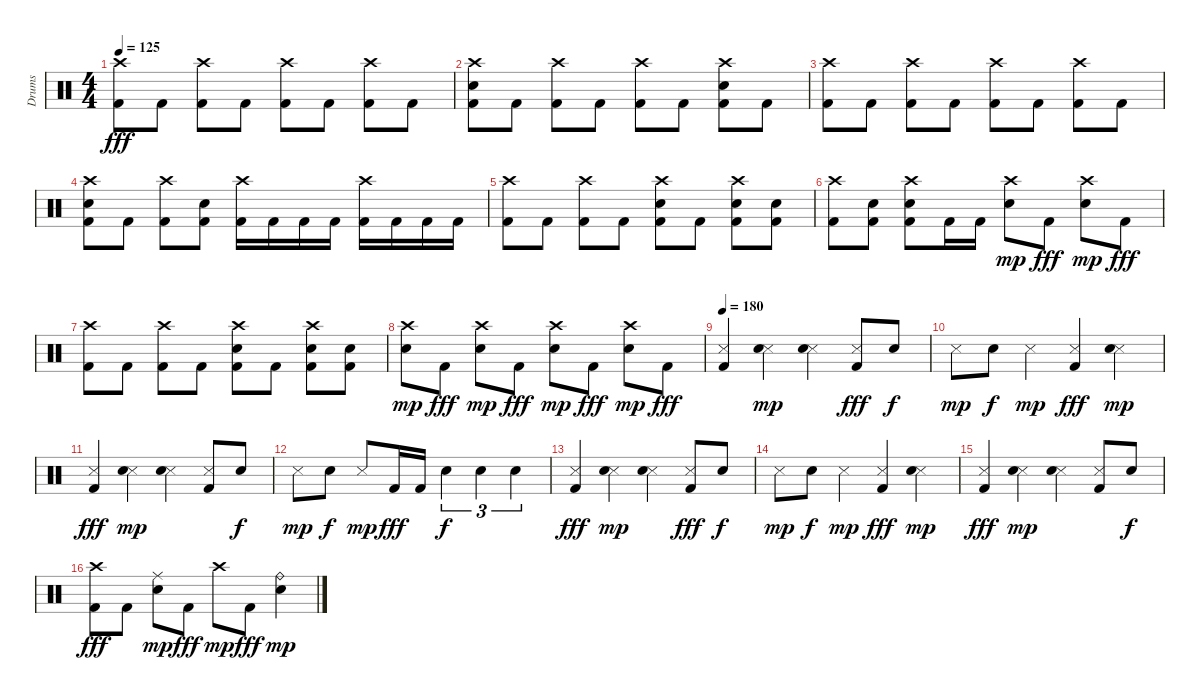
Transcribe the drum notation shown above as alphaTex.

\track ("Drums" "Drums") {instrument percussion}
\staff {score}
\articulation defaults
\ts (4 4)
\tempo 125
\clef neutral
\ks c
("Crash high (hit)" "Kick (hit) 2").8{dy fff} "Kick (hit) 2".8 ("Crash high (hit)" "Kick (hit) 2").8 "Kick (hit) 2".8 ("Crash high (hit)" "Kick (hit) 2").8 "Kick (hit) 2".8 ("Crash high (hit)" "Kick (hit) 2").8 "Kick (hit) 2".8 |
("Crash high (hit)" "Electric Snare (hit)" "Kick (hit) 2").8 "Kick (hit) 2".8 ("Crash high (hit)" "Kick (hit) 2").8 "Kick (hit) 2".8 ("Crash high (hit)" "Kick (hit) 2").8 "Kick (hit) 2".8 ("Crash high (hit)" "Electric Snare (hit)" "Kick (hit) 2").8 "Kick (hit) 2".8 |
("Crash high (hit)" "Kick (hit) 2").8 "Kick (hit) 2".8 ("Crash high (hit)" "Kick (hit) 2").8 "Kick (hit) 2".8 ("Crash high (hit)" "Kick (hit) 2").8 "Kick (hit) 2".8 ("Crash high (hit)" "Kick (hit) 2").8 "Kick (hit) 2".8 |
("Crash high (hit)" "Electric Snare (hit)" "Kick (hit) 2").8 "Kick (hit) 2".8 ("Crash high (hit)" "Kick (hit) 2").8 ("Electric Snare (hit)" "Kick (hit) 2").8 ("Crash high (hit)" "Kick (hit) 2").16 "Kick (hit) 2".16 "Kick (hit) 2".16 "Kick (hit) 2".16 ("Crash high (hit)" "Kick (hit) 2").16 "Kick (hit) 2".16 "Kick (hit) 2".16 "Kick (hit) 2".16 |
("Crash high (hit)" "Kick (hit) 2").8 "Kick (hit) 2".8 ("Crash high (hit)" "Kick (hit) 2").8 "Kick (hit) 2".8 ("Crash high (hit)" "Electric Snare (hit)" "Kick (hit) 2").8 "Kick (hit) 2".8 ("Crash high (hit)" "Electric Snare (hit)" "Kick (hit) 2").8 ("Electric Snare (hit)" "Kick (hit) 2").8 |
("Crash high (hit)" "Kick (hit) 2").8 ("Electric Snare (hit)" "Kick (hit) 2").8 ("Crash high (hit)" "Electric Snare (hit)" "Kick (hit) 2").8 "Kick (hit) 2".16 "Kick (hit) 2".16 ("Crash high (hit)" "Electric Snare (hit)").8{dy mp} "Kick (hit) 2".8{dy fff} ("Crash high (hit)" "Electric Snare (hit)").8{dy mp} "Kick (hit) 2".8{dy fff} |
("Crash high (hit)" "Kick (hit) 2").8 "Kick (hit) 2".8 ("Crash high (hit)" "Kick (hit) 2").8 "Kick (hit) 2".8 ("Crash high (hit)" "Electric Snare (hit)" "Kick (hit) 2").8 "Kick (hit) 2".8 ("Crash high (hit)" "Electric Snare (hit)" "Kick (hit) 2").8 ("Electric Snare (hit)" "Kick (hit) 2").8 |
("Crash high (hit)" "Electric Snare (hit)").8{dy mp} "Kick (hit) 2".8{dy fff} ("Crash high (hit)" "Electric Snare (hit)").8{dy mp} "Kick (hit) 2".8{dy fff} ("Crash high (hit)" "Electric Snare (hit)").8{dy mp} "Kick (hit) 2".8{dy fff} ("Crash high (hit)" "Electric Snare (hit)").8{dy mp} "Kick (hit) 2".8{dy fff} |
\tempo 180
("Snare (side stick) 3" "Kick (hit) 2").4 ("Snare (side stick) 3" "Electric Snare (hit)").4{dy mp} ("Snare (side stick) 3" "Electric Snare (hit)").4 ("Snare (side stick) 3" "Kick (hit) 2").8{dy fff} "Electric Snare (hit)".8{dy f} |
"Snare (side stick) 3".8{dy mp} "Electric Snare (hit)".8{dy f} "Snare (side stick) 3".4{dy mp} ("Snare (side stick) 3" "Kick (hit) 2").4{dy fff} ("Snare (side stick) 3" "Electric Snare (hit)").4{dy mp} |
("Snare (side stick) 3" "Kick (hit) 2").4{dy fff} ("Snare (side stick) 3" "Electric Snare (hit)").4{dy mp} ("Snare (side stick) 3" "Electric Snare (hit)").4 ("Snare (side stick) 3" "Kick (hit) 2").8 "Electric Snare (hit)".8{dy f} |
"Snare (side stick) 3".8{dy mp} "Electric Snare (hit)".8{dy f} "Snare (side stick) 3".8{dy mp} "Kick (hit) 2".16{dy fff} "Kick (hit) 2".16 "Electric Snare (hit)".4{tu (3 2) dy f} "Electric Snare (hit)".4{tu (3 2)} "Electric Snare (hit)".4{tu (3 2)} |
("Snare (side stick) 3" "Kick (hit) 2").4{dy fff} ("Snare (side stick) 3" "Electric Snare (hit)").4{dy mp} ("Snare (side stick) 3" "Electric Snare (hit)").4 ("Snare (side stick) 3" "Kick (hit) 2").8{dy fff} "Electric Snare (hit)".8{dy f} |
"Snare (side stick) 3".8{dy mp} "Electric Snare (hit)".8{dy f} "Snare (side stick) 3".4{dy mp} ("Snare (side stick) 3" "Kick (hit) 2").4{dy fff} ("Snare (side stick) 3" "Electric Snare (hit)").4{dy mp} |
("Snare (side stick) 3" "Kick (hit) 2").4{dy fff} ("Snare (side stick) 3" "Electric Snare (hit)").4{dy mp} ("Snare (side stick) 3" "Electric Snare (hit)").4 ("Snare (side stick) 3" "Kick (hit) 2").8 "Electric Snare (hit)".8{dy f} |
("Crash high (hit)" "Kick (hit) 2").8{dy fff} "Kick (hit) 2".8 ("Ride (middle)" "Electric Snare (hit)").8{dy mp} "Kick (hit) 2".8{dy fff} "Crash high (hit)".8{dy mp} "Kick (hit) 2".8{dy fff} ("Ride (bell)" "Electric Snare (hit)").4{dy mp}
